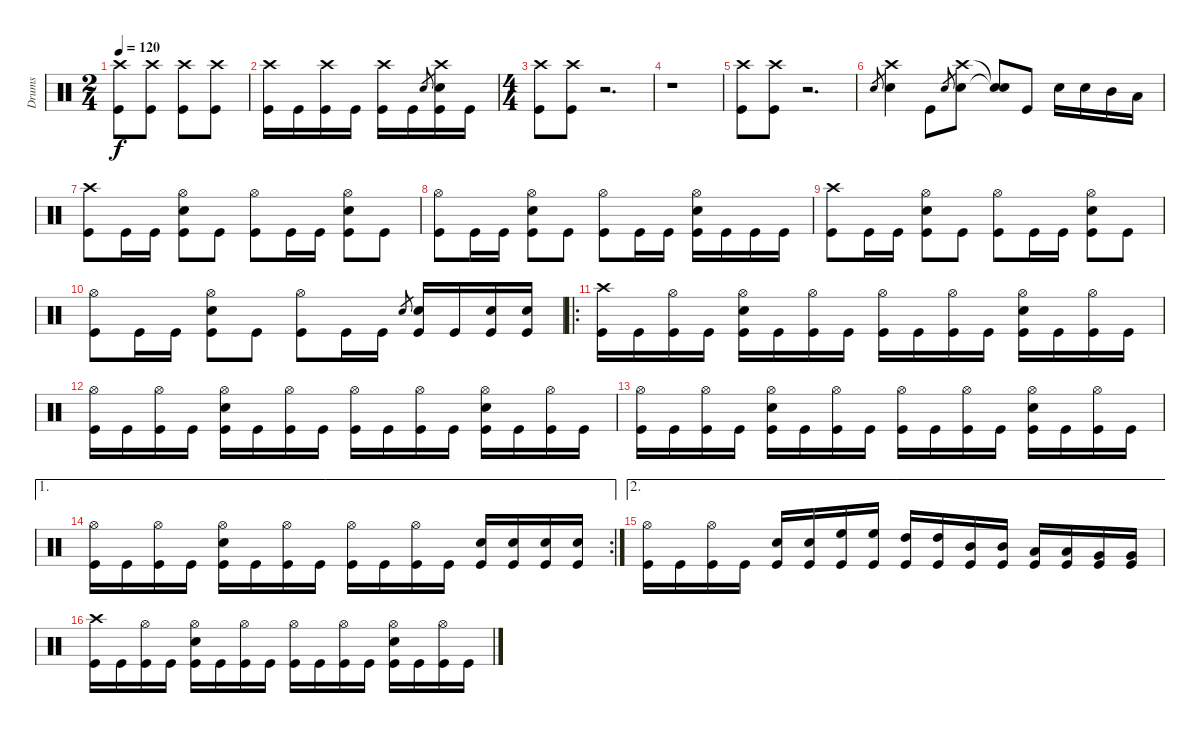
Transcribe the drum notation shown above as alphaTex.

\track ("Drums" "Drums") {instrument percussion}
\staff {score}
\articulation defaults
\ts (2 4)
\tempo 120
\clef neutral
\ks c
("Kick (hit)" "Crash high (hit)").8{dy f} ("Kick (hit)" "Crash high (hit)").8 ("Kick (hit)" "Crash high (hit)").8 ("Kick (hit)" "Crash high (hit)").8 |
("Kick (hit)" "Crash high (hit)").16 "Kick (hit)".16 ("Kick (hit)" "Crash high (hit)").16 "Kick (hit)".16 ("Kick (hit)" "Crash high (hit)").16 "Kick (hit)".16 "Electric Snare (hit)".8{gr} ("Kick (hit)" "Electric Snare (hit)" "Crash high (hit)").16 "Kick (hit)".16 |
\ts (4 4)
("Kick (hit)" "Crash high (hit)").8 ("Kick (hit)" "Crash high (hit)").8 r.2{d} |
r.1 |
("Kick (hit)" "Crash high (hit)").8 ("Kick (hit)" "Crash high (hit)").8 r.2{d} |
"Electric Snare (hit)".8{gr} ("Electric Snare (hit)" "Crash high (hit)").4 "Kick (hit)".8 "Electric Snare (hit)".8{gr} ("Electric Snare (hit)" "Crash high (hit)").8 ("Snare (hit)"{t} "Snare (hit)"{t}).8 "Kick (hit)".8 "Electric Snare (hit)".16 "Electric Snare (hit)".16 "Mid Tom (hit)".16 "Low Tom (hit)".16 |
("Kick (hit)" "Crash high (hit)").8 "Kick (hit)".16 "Kick (hit)".16 ("Kick (hit)" "Electric Snare (hit)" "Hi-Hat (open)").8 "Kick (hit)".8 ("Kick (hit)" "Hi-Hat (open)").8 "Kick (hit)".16 "Kick (hit)".16 ("Kick (hit)" "Electric Snare (hit)" "Hi-Hat (open)").8 "Kick (hit)".8 |
("Kick (hit)" "Hi-Hat (open)").8 "Kick (hit)".16 "Kick (hit)".16 ("Kick (hit)" "Electric Snare (hit)" "Hi-Hat (open)").8 "Kick (hit)".8 ("Kick (hit)" "Hi-Hat (open)").8 "Kick (hit)".16 "Kick (hit)".16 ("Kick (hit)" "Electric Snare (hit)" "Hi-Hat (open)").16 "Kick (hit)".16 "Kick (hit)".16 "Kick (hit)".16 |
("Kick (hit)" "Crash high (hit)").8 "Kick (hit)".16 "Kick (hit)".16 ("Kick (hit)" "Electric Snare (hit)" "Hi-Hat (open)").8 "Kick (hit)".8 ("Kick (hit)" "Hi-Hat (open)").8 "Kick (hit)".16 "Kick (hit)".16 ("Kick (hit)" "Electric Snare (hit)" "Hi-Hat (open)").8 "Kick (hit)".8 |
("Kick (hit)" "Hi-Hat (open)").8 "Kick (hit)".16 "Kick (hit)".16 ("Kick (hit)" "Electric Snare (hit)" "Hi-Hat (open)").8 "Kick (hit)".8 ("Kick (hit)" "Hi-Hat (open)").8 "Kick (hit)".16 "Kick (hit)".16 "Electric Snare (hit)".8{gr} ("Kick (hit)" "Electric Snare (hit)").16 "Kick (hit)".16 ("Kick (hit)" "Electric Snare (hit)").16 ("Kick (hit)" "Electric Snare (hit)").16 |
\ro
("Kick (hit)" "Crash high (hit)").16 "Kick (hit)".16 ("Kick (hit)" "Hi-Hat (open)").16 "Kick (hit)".16 ("Kick (hit)" "Electric Snare (hit)" "Hi-Hat (open)").16 "Kick (hit)".16 ("Kick (hit)" "Hi-Hat (open)").16 "Kick (hit)".16 ("Kick (hit)" "Hi-Hat (open)").16 "Kick (hit)".16 ("Kick (hit)" "Hi-Hat (open)").16 "Kick (hit)".16 ("Kick (hit)" "Electric Snare (hit)" "Hi-Hat (open)").16 "Kick (hit)".16 ("Kick (hit)" "Hi-Hat (open)").16 "Kick (hit)".16 |
("Kick (hit)" "Hi-Hat (open)").16 "Kick (hit)".16 ("Kick (hit)" "Hi-Hat (open)").16 "Kick (hit)".16 ("Kick (hit)" "Electric Snare (hit)" "Hi-Hat (open)").16 "Kick (hit)".16 ("Kick (hit)" "Hi-Hat (open)").16 "Kick (hit)".16 ("Kick (hit)" "Hi-Hat (open)").16 "Kick (hit)".16 ("Kick (hit)" "Hi-Hat (open)").16 "Kick (hit)".16 ("Kick (hit)" "Electric Snare (hit)" "Hi-Hat (open)").16 "Kick (hit)".16 ("Kick (hit)" "Hi-Hat (open)").16 "Kick (hit)".16 |
("Kick (hit)" "Hi-Hat (open)").16 "Kick (hit)".16 ("Kick (hit)" "Hi-Hat (open)").16 "Kick (hit)".16 ("Kick (hit)" "Electric Snare (hit)" "Hi-Hat (open)").16 "Kick (hit)".16 ("Kick (hit)" "Hi-Hat (open)").16 "Kick (hit)".16 ("Kick (hit)" "Hi-Hat (open)").16 "Kick (hit)".16 ("Kick (hit)" "Hi-Hat (open)").16 "Kick (hit)".16 ("Kick (hit)" "Electric Snare (hit)" "Hi-Hat (open)").16 "Kick (hit)".16 ("Kick (hit)" "Hi-Hat (open)").16 "Kick (hit)".16 |
\ae 1
\rc 2
("Kick (hit)" "Hi-Hat (open)").16 "Kick (hit)".16 ("Kick (hit)" "Hi-Hat (open)").16 "Kick (hit)".16 ("Kick (hit)" "Electric Snare (hit)" "Hi-Hat (open)").16 "Kick (hit)".16 ("Kick (hit)" "Hi-Hat (open)").16 "Kick (hit)".16 ("Kick (hit)" "Hi-Hat (open)").16 "Kick (hit)".16 ("Kick (hit)" "Hi-Hat (open)").16 "Kick (hit)".16 ("Kick (hit)" "Electric Snare (hit)").16 ("Kick (hit)" "Electric Snare (hit)").16 ("Kick (hit)" "Electric Snare (hit)").16 ("Kick (hit)" "Electric Snare (hit)").16 |
\ae 2
("Kick (hit)" "Hi-Hat (open)").16 "Kick (hit)".16 ("Kick (hit)" "Hi-Hat (open)").16 "Kick (hit)".16 ("Kick (hit)" "Electric Snare (hit)").16 ("Kick (hit)" "Electric Snare (hit)").16 ("Kick (hit)" "High Floor Tom (hit)").16 ("Kick (hit)" "High Floor Tom (hit)").16 ("Kick (hit)" "High Tom (hit)").16 ("Kick (hit)" "High Tom (hit)").16 ("Kick (hit)" "Mid Tom (hit)").16 ("Kick (hit)" "Mid Tom (hit)").16 ("Kick (hit)" "Low Tom (hit)").16 ("Kick (hit)" "Low Tom (hit)").16 ("Kick (hit)" "Very Low Tom (hit)").16 ("Kick (hit)" "Very Low Tom (hit)").16 |
("Kick (hit)" "Crash high (hit)").16 "Kick (hit)".16 ("Kick (hit)" "Hi-Hat (open)").16 "Kick (hit)".16 ("Kick (hit)" "Electric Snare (hit)" "Hi-Hat (open)").16 "Kick (hit)".16 ("Kick (hit)" "Hi-Hat (open)").16 "Kick (hit)".16 ("Kick (hit)" "Hi-Hat (open)").16 "Kick (hit)".16 ("Kick (hit)" "Hi-Hat (open)").16 "Kick (hit)".16 ("Kick (hit)" "Electric Snare (hit)" "Hi-Hat (open)").16 "Kick (hit)".16 ("Kick (hit)" "Hi-Hat (open)").16 "Kick (hit)".16
